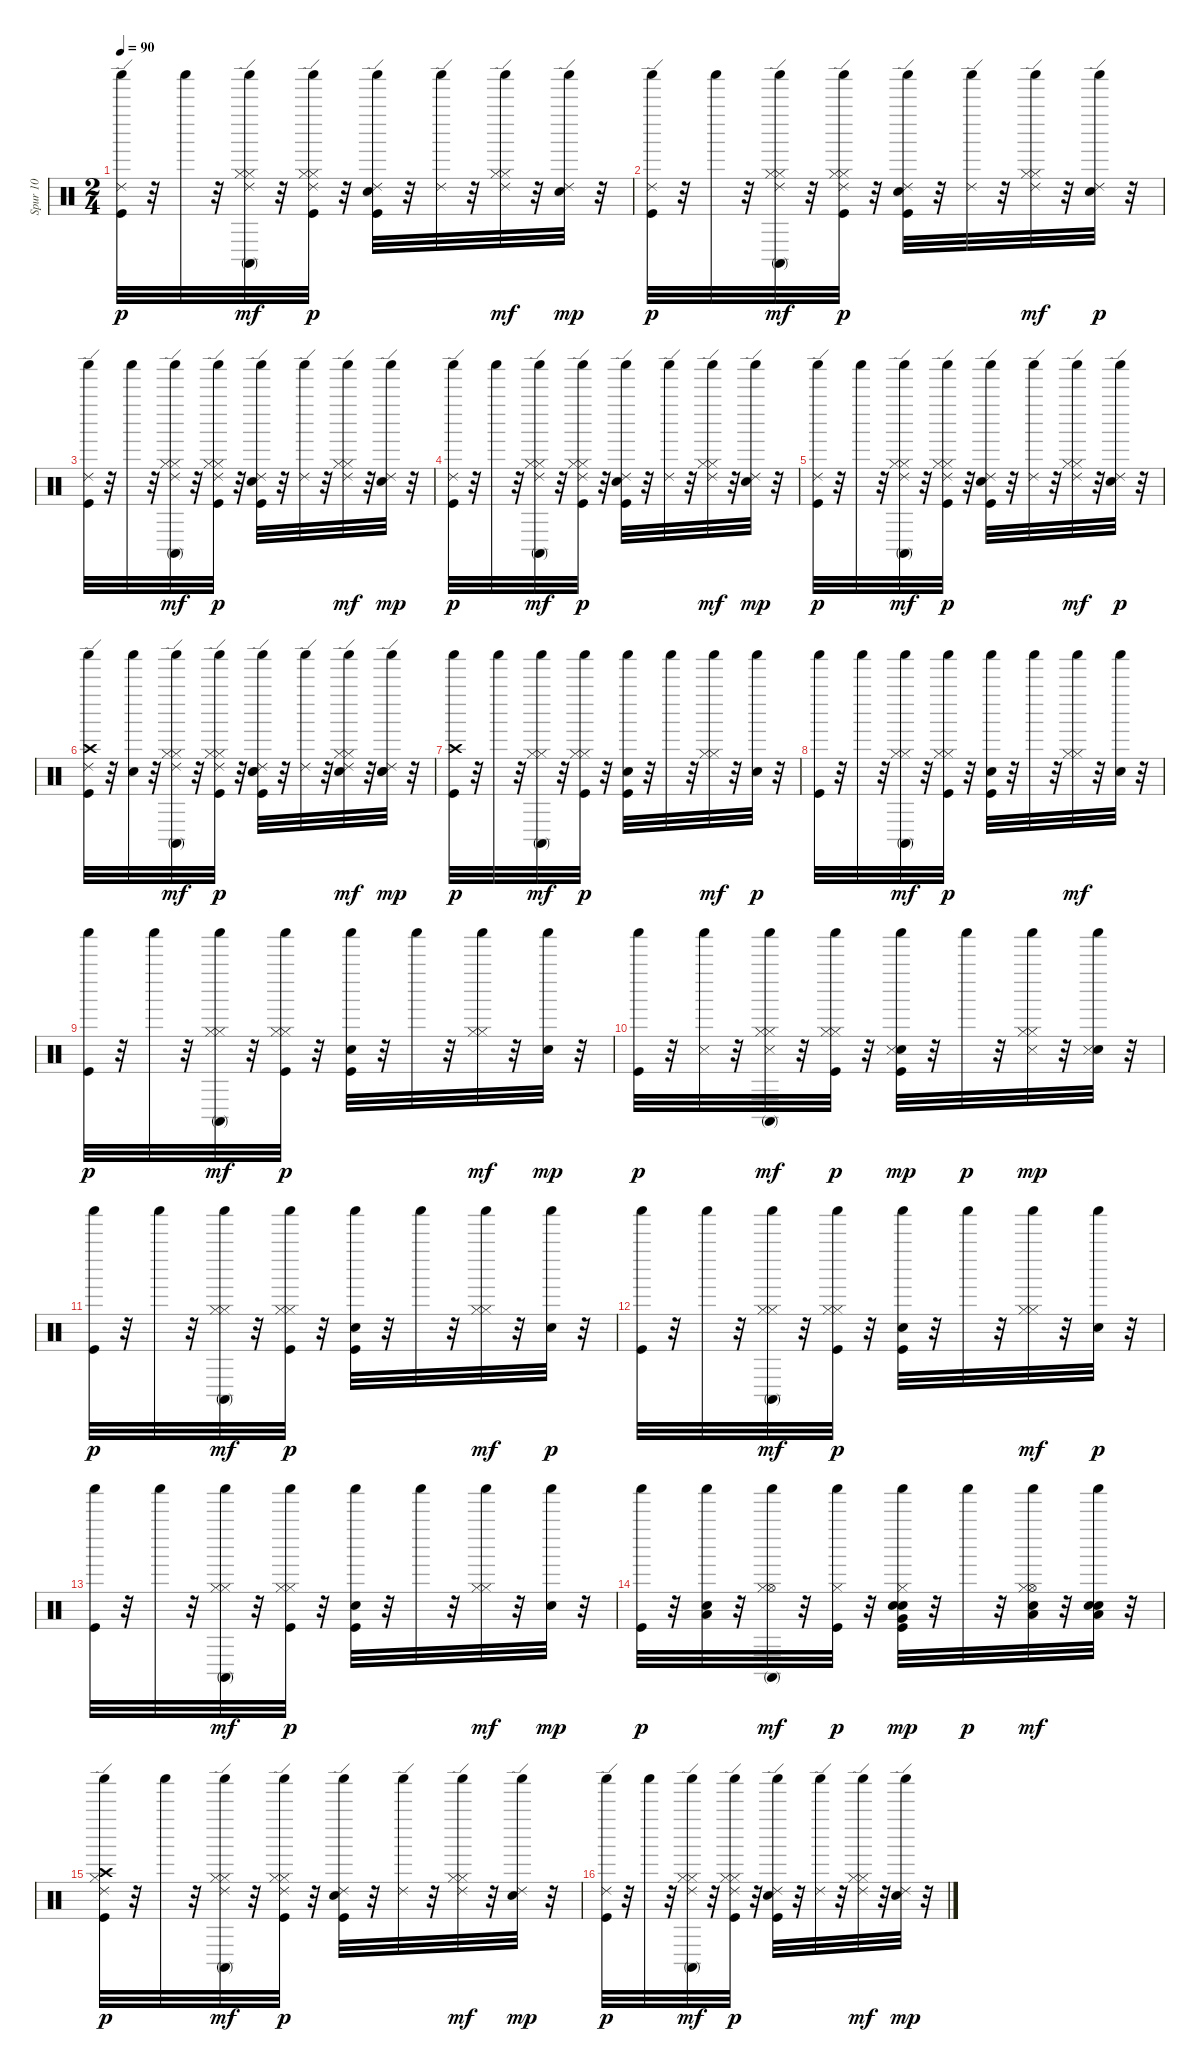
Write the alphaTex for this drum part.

\track ("Spur 10" "Spur 10") {instrument percussion}
\staff {score}
\articulation defaults
\ts (2 4)
\tempo 90
\clef neutral
\ks c
("Shaker (hit)" "Ride (edge) 2" "Kick (hit)").32{dy p} r.32 "Shaker (hit)".32 r.32 ("Hi-Hat (closed)" "Conga high (mute)" "Ride (edge) 2" "Shaker (hit)" "Hi-Hat (closed)").32{dy mf} r.32 ("Hi-Hat (closed)" "Ride (edge) 2" "Kick (hit)" "Shaker (hit)" "Hi-Hat (closed)").32{dy p} r.32 ("Ride (edge) 2" "Shaker (hit)" "Snare (hit) 2" "Kick (hit)").32 r.32 ("Shaker (hit)" "Ride (edge) 2").32 r.32 ("Shaker (hit)" "Ride (edge) 2" "Hi-Hat (closed)" "Hi-Hat (closed)").32{dy mf} r.32 ("Electric Snare (hit)" "Shaker (hit)" "Ride (edge) 2").32{dy mp} r.32 |
("Ride (edge) 2" "Shaker (hit)" "Kick (hit)").32{dy p} r.32 "Shaker (hit)".32 r.32 ("Ride (edge) 2" "Hi-Hat (closed)" "Conga high (mute)" "Shaker (hit)" "Hi-Hat (closed)").32{dy mf} r.32 ("Kick (hit)" "Shaker (hit)" "Hi-Hat (closed)" "Ride (edge) 2" "Hi-Hat (closed)").32{dy p} r.32 ("Shaker (hit)" "Ride (edge) 2" "Snare (hit) 2" "Kick (hit)").32 r.32 ("Shaker (hit)" "Ride (edge) 2").32 r.32 ("Ride (edge) 2" "Hi-Hat (closed)" "Shaker (hit)" "Hi-Hat (closed)").32{dy mf} r.32 ("Ride (edge) 2" "Electric Snare (hit)" "Shaker (hit)").32{dy p} r.32 |
("Ride (edge) 2" "Shaker (hit)" "Kick (hit)").32 r.32 "Shaker (hit)".32 r.32 ("Hi-Hat (closed)" "Ride (edge) 2" "Shaker (hit)" "Conga high (mute)" "Hi-Hat (closed)").32{dy mf} r.32 ("Kick (hit)" "Hi-Hat (closed)" "Shaker (hit)" "Ride (edge) 2" "Hi-Hat (closed)").32{dy p} r.32 ("Ride (edge) 2" "Shaker (hit)" "Snare (hit) 2" "Kick (hit)").32 r.32 ("Ride (edge) 2" "Shaker (hit)").32 r.32 ("Shaker (hit)" "Hi-Hat (closed)" "Ride (edge) 2" "Hi-Hat (closed)").32{dy mf} r.32 ("Shaker (hit)" "Ride (edge) 2" "Electric Snare (hit)").32{dy mp} r.32 |
("Ride (edge) 2" "Shaker (hit)" "Kick (hit)").32{dy p} r.32 "Shaker (hit)".32 r.32 ("Conga high (mute)" "Hi-Hat (closed)" "Ride (edge) 2" "Shaker (hit)" "Hi-Hat (closed)").32{dy mf} r.32 ("Ride (edge) 2" "Hi-Hat (closed)" "Shaker (hit)" "Kick (hit)" "Hi-Hat (closed)").32{dy p} r.32 ("Snare (hit) 2" "Ride (edge) 2" "Shaker (hit)" "Kick (hit)").32 r.32 ("Shaker (hit)" "Ride (edge) 2").32 r.32 ("Shaker (hit)" "Hi-Hat (closed)" "Ride (edge) 2" "Hi-Hat (closed)").32{dy mf} r.32 ("Shaker (hit)" "Electric Snare (hit)" "Ride (edge) 2").32{dy mp} r.32 |
("Ride (edge) 2" "Shaker (hit)" "Kick (hit)").32{dy p} r.32 "Shaker (hit)".32 r.32 ("Ride (edge) 2" "Conga high (mute)" "Hi-Hat (closed)" "Shaker (hit)" "Hi-Hat (closed)").32{dy mf} r.32 ("Ride (edge) 2" "Hi-Hat (closed)" "Kick (hit)" "Shaker (hit)" "Hi-Hat (closed)").32{dy p} r.32 ("Shaker (hit)" "Snare (hit) 2" "Ride (edge) 2" "Kick (hit)").32 r.32 ("Ride (edge) 2" "Shaker (hit)").32 r.32 ("Shaker (hit)" "Ride (edge) 2" "Hi-Hat (closed)" "Hi-Hat (closed)").32{dy mf} r.32 ("Ride (edge) 2" "Electric Snare (hit)" "Shaker (hit)").32{dy p} r.32 |
("Shaker (hit)" "Ride (edge) 2" "Crash high (hit)" "Kick (hit)").32 r.32 ("Shaker (hit)" "Snare (hit) 2").32 r.32 ("Shaker (hit)" "Conga high (mute)" "Hi-Hat (closed)" "Ride (edge) 2" "Hi-Hat (closed)").32{dy mf} r.32 ("Kick (hit)" "Shaker (hit)" "Ride (edge) 2" "Hi-Hat (closed)" "Hi-Hat (closed)").32{dy p} r.32 ("Snare (hit) 2" "Ride (edge) 2" "Shaker (hit)" "Kick (hit)" "Electric Snare (hit)").32 r.32 ("Shaker (hit)" "Ride (edge) 2").32 r.32 ("Ride (edge) 2" "Shaker (hit)" "Hi-Hat (closed)" "Snare (hit) 2" "Hi-Hat (closed)").32{dy mf} r.32 ("Shaker (hit)" "Electric Snare (hit)" "Snare (hit) 2" "Ride (edge) 2").32{dy mp} r.32 |
("Shaker (hit)" "Kick (hit)" "Crash high (hit)").32{dy p} r.32 "Shaker (hit)".32 r.32 ("Shaker (hit)" "Hi-Hat (closed)" "Conga high (mute)" "Hi-Hat (closed)").32{dy mf} r.32 ("Hi-Hat (closed)" "Shaker (hit)" "Kick (hit)" "Hi-Hat (closed)").32{dy p} r.32 ("Snare (hit) 2" "Shaker (hit)" "Kick (hit)").32 r.32 "Shaker (hit)".32 r.32 ("Shaker (hit)" "Hi-Hat (closed)" "Hi-Hat (closed)").32{dy mf} r.32 ("Electric Snare (hit)" "Shaker (hit)").32{dy p} r.32 |
("Shaker (hit)" "Kick (hit)").32 r.32 "Shaker (hit)".32 r.32 ("Shaker (hit)" "Hi-Hat (closed)" "Conga high (mute)" "Hi-Hat (closed)").32{dy mf} r.32 ("Kick (hit)" "Hi-Hat (closed)" "Shaker (hit)" "Hi-Hat (closed)").32{dy p} r.32 ("Shaker (hit)" "Snare (hit) 2" "Kick (hit)").32 r.32 "Shaker (hit)".32 r.32 ("Hi-Hat (closed)" "Shaker (hit)" "Hi-Hat (closed)").32{dy mf} r.32 ("Shaker (hit)" "Electric Snare (hit)").32 r.32 |
("Shaker (hit)" "Kick (hit)").32{dy p} r.32 "Shaker (hit)".32 r.32 ("Conga high (mute)" "Shaker (hit)" "Hi-Hat (closed)" "Hi-Hat (closed)").32{dy mf} r.32 ("Shaker (hit)" "Kick (hit)" "Hi-Hat (closed)" "Hi-Hat (closed)").32{dy p} r.32 ("Snare (hit) 2" "Shaker (hit)" "Kick (hit)").32 r.32 "Shaker (hit)".32 r.32 ("Hi-Hat (closed)" "Shaker (hit)" "Hi-Hat (closed)").32{dy mf} r.32 ("Shaker (hit)" "Electric Snare (hit)").32{dy mp} r.32 |
("Shaker (hit)" "Kick (hit)").32{dy p} r.32 ("Shaker (hit)" "Snare (side stick) 3").32 r.32 ("Hi-Hat (closed)" "Shaker (hit)" "Conga high (mute)" "Hi-Hat (closed)" "Snare (side stick) 3").32{dy mf} r.32 ("Shaker (hit)" "Kick (hit)" "Hi-Hat (closed)" "Hi-Hat (closed)").32{dy p} r.32 ("Shaker (hit)" "Snare (hit) 2" "Snare (side stick) 3" "Kick (hit)").32{dy mp} r.32 "Shaker (hit)".32{dy p} r.32 ("Hi-Hat (closed)" "Shaker (hit)" "Hi-Hat (closed)" "Snare (side stick) 3").32{dy mp} r.32 ("Shaker (hit)" "Electric Snare (hit)" "Snare (side stick) 3").32 r.32 |
("Shaker (hit)" "Kick (hit)").32{dy p} r.32 "Shaker (hit)".32 r.32 ("Shaker (hit)" "Hi-Hat (closed)" "Conga high (mute)" "Hi-Hat (closed)").32{dy mf} r.32 ("Kick (hit)" "Shaker (hit)" "Hi-Hat (closed)" "Hi-Hat (closed)").32{dy p} r.32 ("Snare (hit) 2" "Shaker (hit)" "Kick (hit)").32 r.32 "Shaker (hit)".32 r.32 ("Hi-Hat (closed)" "Shaker (hit)" "Hi-Hat (closed)").32{dy mf} r.32 ("Electric Snare (hit)" "Shaker (hit)").32{dy p} r.32 |
("Shaker (hit)" "Kick (hit)").32 r.32 "Shaker (hit)".32 r.32 ("Conga high (mute)" "Shaker (hit)" "Hi-Hat (closed)" "Hi-Hat (closed)").32{dy mf} r.32 ("Kick (hit)" "Hi-Hat (closed)" "Shaker (hit)" "Hi-Hat (closed)").32{dy p} r.32 ("Snare (hit) 2" "Shaker (hit)" "Kick (hit)").32 r.32 "Shaker (hit)".32 r.32 ("Shaker (hit)" "Hi-Hat (closed)" "Hi-Hat (closed)").32{dy mf} r.32 ("Electric Snare (hit)" "Shaker (hit)").32{dy p} r.32 |
("Shaker (hit)" "Kick (hit)").32 r.32 "Shaker (hit)".32 r.32 ("Shaker (hit)" "Conga high (mute)" "Hi-Hat (closed)" "Hi-Hat (closed)").32{dy mf} r.32 ("Kick (hit)" "Hi-Hat (closed)" "Shaker (hit)" "Hi-Hat (closed)").32{dy p} r.32 ("Shaker (hit)" "Snare (hit) 2" "Kick (hit)").32 r.32 "Shaker (hit)".32 r.32 ("Hi-Hat (closed)" "Shaker (hit)" "Hi-Hat (closed)").32{dy mf} r.32 ("Shaker (hit)" "Electric Snare (hit)").32{dy mp} r.32 |
("Shaker (hit)" "Kick (hit)").32{dy p} r.32 ("Low Tom (hit)" "Shaker (hit)" "Electric Snare (hit)").32 r.32 ("Shaker (hit)" "Hi-Hat (open)" "Conga high (mute)" "Hi-Hat (closed)").32{dy mf} r.32 ("Kick (hit)" "Shaker (hit)" "Hi-Hat (closed)").32{dy p} r.32 ("Very Low Tom (hit)" "Snare (hit) 2" "Shaker (hit)" "Hi-Hat (closed)" "Kick (hit)" "Electric Snare (hit)").32{dy mp} r.32 "Shaker (hit)".32{dy p} r.32 ("Low Floor Tom (hit)" "Shaker (hit)" "Hi-Hat (open)" "Snare (hit) 2" "Hi-Hat (closed)").32{dy mf} r.32 ("Low Floor Tom (hit)" "Snare (hit) 2" "Shaker (hit)" "Electric Snare (hit)").32 r.32 |
("Hi-Hat (closed)" "Shaker (hit)" "Ride (edge) 2" "Crash high (hit)" "Kick (hit)").32{dy p} r.32 "Shaker (hit)".32 r.32 ("Shaker (hit)" "Hi-Hat (closed)" "Conga high (mute)" "Ride (edge) 2" "Hi-Hat (closed)").32{dy mf} r.32 ("Hi-Hat (closed)" "Shaker (hit)" "Kick (hit)" "Ride (edge) 2" "Hi-Hat (closed)").32{dy p} r.32 ("Snare (hit) 2" "Shaker (hit)" "Ride (edge) 2" "Kick (hit)").32 r.32 ("Shaker (hit)" "Ride (edge) 2").32 r.32 ("Shaker (hit)" "Hi-Hat (closed)" "Ride (edge) 2" "Hi-Hat (closed)").32{dy mf} r.32 ("Electric Snare (hit)" "Shaker (hit)" "Ride (edge) 2").32{dy mp} r.32 |
("Shaker (hit)" "Ride (edge) 2" "Kick (hit)").32{dy p} r.32 "Shaker (hit)".32 r.32 ("Shaker (hit)" "Hi-Hat (closed)" "Conga high (mute)" "Ride (edge) 2" "Hi-Hat (closed)").32{dy mf} r.32 ("Kick (hit)" "Hi-Hat (closed)" "Shaker (hit)" "Ride (edge) 2" "Hi-Hat (closed)").32{dy p} r.32 ("Shaker (hit)" "Snare (hit) 2" "Ride (edge) 2" "Kick (hit)").32 r.32 ("Shaker (hit)" "Ride (edge) 2").32 r.32 ("Hi-Hat (closed)" "Shaker (hit)" "Ride (edge) 2" "Hi-Hat (closed)").32{dy mf} r.32 ("Shaker (hit)" "Electric Snare (hit)" "Ride (edge) 2").32{dy mp} r.32
